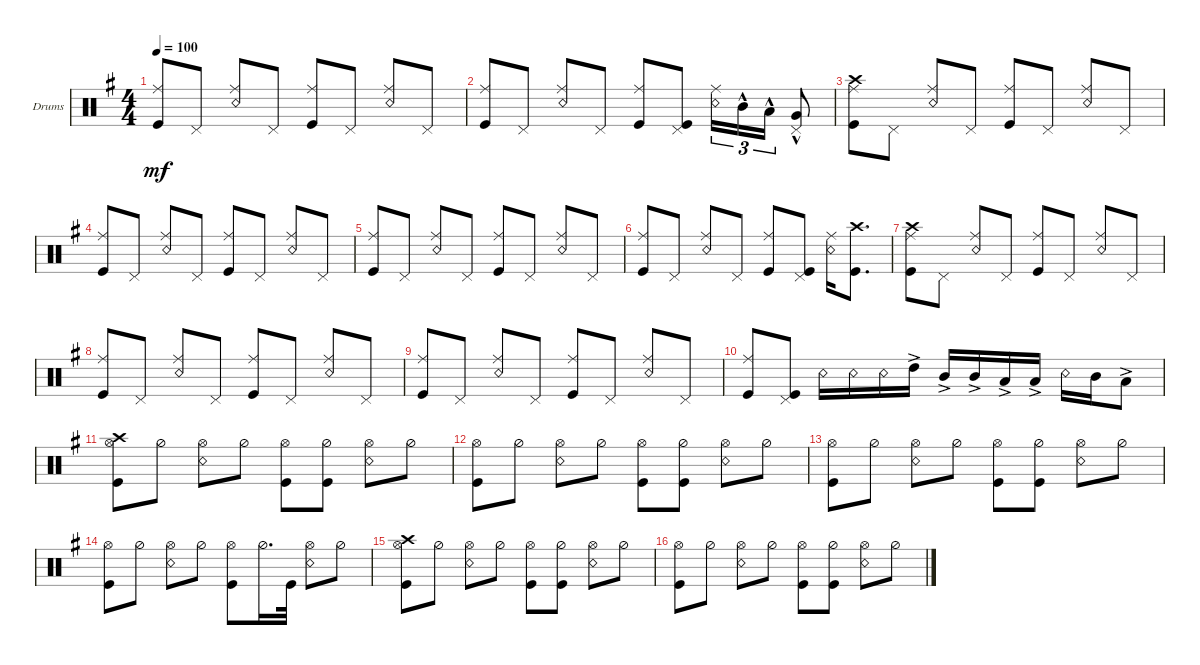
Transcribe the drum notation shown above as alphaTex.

\defaultSystemsLayout 4
\bracketExtendMode groupsimilarinstruments
\firstSystemTrackNameOrientation horizontal
\otherSystemsTrackNameOrientation horizontal
\track ("Drumkit" "Drums") {instrument percussion}
\staff {score}
\articulation defaults
\ts (4 4)
\tempo 100
\clef neutral
\ks eminor
("Kick (hit)" "Ride (middle)").8{dy mf} "Pedal Hi-Hat (hit)".8 ("Ride (middle)" "Snare (rim shot)").8 "Pedal Hi-Hat (hit)".8 ("Kick (hit)" "Ride (middle)").8 "Pedal Hi-Hat (hit)".8 ("Ride (middle)" "Snare (rim shot)").8 "Pedal Hi-Hat (hit)".8 |
("Kick (hit)" "Ride (middle)").8 "Pedal Hi-Hat (hit)".8 ("Ride (middle)" "Snare (rim shot)").8 "Pedal Hi-Hat (hit)".8 ("Kick (hit)" "Ride (middle)").8 ("Pedal Hi-Hat (hit)" "Kick (hit)").8 ("Ride (middle)" "Snare (rim shot)").16{tu (3 2)} "Mid Tom (hit)"{hac}.16{tu (3 2)} "Low Tom (hit)"{hac}.16{tu (3 2)} ("Pedal Hi-Hat (hit)" "Very Low Tom (hit)"{hac}).8 |
("Kick (hit)" "Ride (middle)" "Crash high (hit)").8 "Pedal Hi-Hat (hit)".8 ("Ride (middle)" "Snare (rim shot)").8 "Pedal Hi-Hat (hit)".8 ("Kick (hit)" "Ride (middle)").8 "Pedal Hi-Hat (hit)".8 ("Ride (middle)" "Snare (rim shot)").8 "Pedal Hi-Hat (hit)".8 |
("Kick (hit)" "Ride (middle)").8 "Pedal Hi-Hat (hit)".8 ("Ride (middle)" "Snare (rim shot)").8 "Pedal Hi-Hat (hit)".8 ("Kick (hit)" "Ride (middle)").8 "Pedal Hi-Hat (hit)".8 ("Ride (middle)" "Snare (rim shot)").8 "Pedal Hi-Hat (hit)".8 |
("Kick (hit)" "Ride (middle)").8 "Pedal Hi-Hat (hit)".8 ("Ride (middle)" "Snare (rim shot)").8 "Pedal Hi-Hat (hit)".8 ("Kick (hit)" "Ride (middle)").8 "Pedal Hi-Hat (hit)".8 ("Ride (middle)" "Snare (rim shot)").8 "Pedal Hi-Hat (hit)".8 |
("Kick (hit)" "Ride (middle)").8 "Pedal Hi-Hat (hit)".8 ("Ride (middle)" "Snare (rim shot)").8 "Pedal Hi-Hat (hit)".8 ("Kick (hit)" "Ride (middle)").8 ("Pedal Hi-Hat (hit)" "Kick (hit)").8 ("Ride (middle)" "Snare (rim shot)").16 ("Kick (hit)" "Crash high (hit)").8{d} |
("Kick (hit)" "Ride (middle)" "Crash high (hit)").8 "Pedal Hi-Hat (hit)".8 ("Ride (middle)" "Snare (rim shot)").8 "Pedal Hi-Hat (hit)".8 ("Kick (hit)" "Ride (middle)").8 "Pedal Hi-Hat (hit)".8 ("Ride (middle)" "Snare (rim shot)").8 "Pedal Hi-Hat (hit)".8 |
("Kick (hit)" "Ride (middle)").8 "Pedal Hi-Hat (hit)".8 ("Ride (middle)" "Snare (rim shot)").8 "Pedal Hi-Hat (hit)".8 ("Kick (hit)" "Ride (middle)").8 "Pedal Hi-Hat (hit)".8 ("Ride (middle)" "Snare (rim shot)").8 "Pedal Hi-Hat (hit)".8 |
("Kick (hit)" "Ride (middle)").8 "Pedal Hi-Hat (hit)".8 ("Ride (middle)" "Snare (rim shot)").8 "Pedal Hi-Hat (hit)".8 ("Kick (hit)" "Ride (middle)").8 "Pedal Hi-Hat (hit)".8 ("Ride (middle)" "Snare (rim shot)").8 "Pedal Hi-Hat (hit)".8 |
("Kick (hit)" "Ride (middle)").8 ("Pedal Hi-Hat (hit)" "Kick (hit)").8 "Snare (rim shot)".16 "Snare (rim shot)".16 "Snare (rim shot)".16 "High Tom (hit)"{ac}.16 "Mid Tom (hit)"{ac}.16 "Mid Tom (hit)"{ac}.16 "Low Tom (hit)"{ac}.16 "Low Tom (hit)"{ac}.16 "Snare (rim shot)".16 "Mid Tom (hit)".16 "Low Tom (hit)"{ac}.8 |
("Kick (hit)" "Hi-Hat (open)" "Crash high (hit)").8 "Hi-Hat (half)".8 ("Hi-Hat (open)" "Snare (rim shot)").8 "Hi-Hat (half)".8 ("Kick (hit)" "Hi-Hat (open)").8 ("Hi-Hat (half)" "Kick (hit)").8 ("Hi-Hat (open)" "Snare (rim shot)").8 "Hi-Hat (half)".8 |
("Kick (hit)" "Hi-Hat (open)").8 "Hi-Hat (half)".8 ("Hi-Hat (open)" "Snare (rim shot)").8 "Hi-Hat (half)".8 ("Kick (hit)" "Hi-Hat (open)").8 ("Hi-Hat (half)" "Kick (hit)").8 ("Hi-Hat (open)" "Snare (rim shot)").8 "Hi-Hat (half)".8 |
("Kick (hit)" "Hi-Hat (open)").8 "Hi-Hat (half)".8 ("Hi-Hat (open)" "Snare (rim shot)").8 "Hi-Hat (half)".8 ("Kick (hit)" "Hi-Hat (open)").8 ("Hi-Hat (half)" "Kick (hit)").8 ("Hi-Hat (open)" "Snare (rim shot)").8 "Hi-Hat (half)".8 |
("Kick (hit)" "Hi-Hat (open)").8 "Hi-Hat (half)".8 ("Hi-Hat (open)" "Snare (rim shot)").8 "Hi-Hat (half)".8 ("Kick (hit)" "Hi-Hat (open)").8 "Hi-Hat (half)".16{d} "Kick (hit)".32 ("Hi-Hat (open)" "Snare (rim shot)").8 "Hi-Hat (half)".8 |
("Kick (hit)" "Hi-Hat (open)" "Crash high (hit)").8 "Hi-Hat (half)".8 ("Hi-Hat (open)" "Snare (rim shot)").8 "Hi-Hat (half)".8 ("Kick (hit)" "Hi-Hat (open)").8 ("Hi-Hat (half)" "Kick (hit)").8 ("Hi-Hat (open)" "Snare (rim shot)").8 "Hi-Hat (half)".8 |
("Kick (hit)" "Hi-Hat (open)").8 "Hi-Hat (half)".8 ("Hi-Hat (open)" "Snare (rim shot)").8 "Hi-Hat (half)".8 ("Kick (hit)" "Hi-Hat (open)").8 ("Hi-Hat (half)" "Kick (hit)").8 ("Hi-Hat (open)" "Snare (rim shot)").8 "Hi-Hat (half)".8
